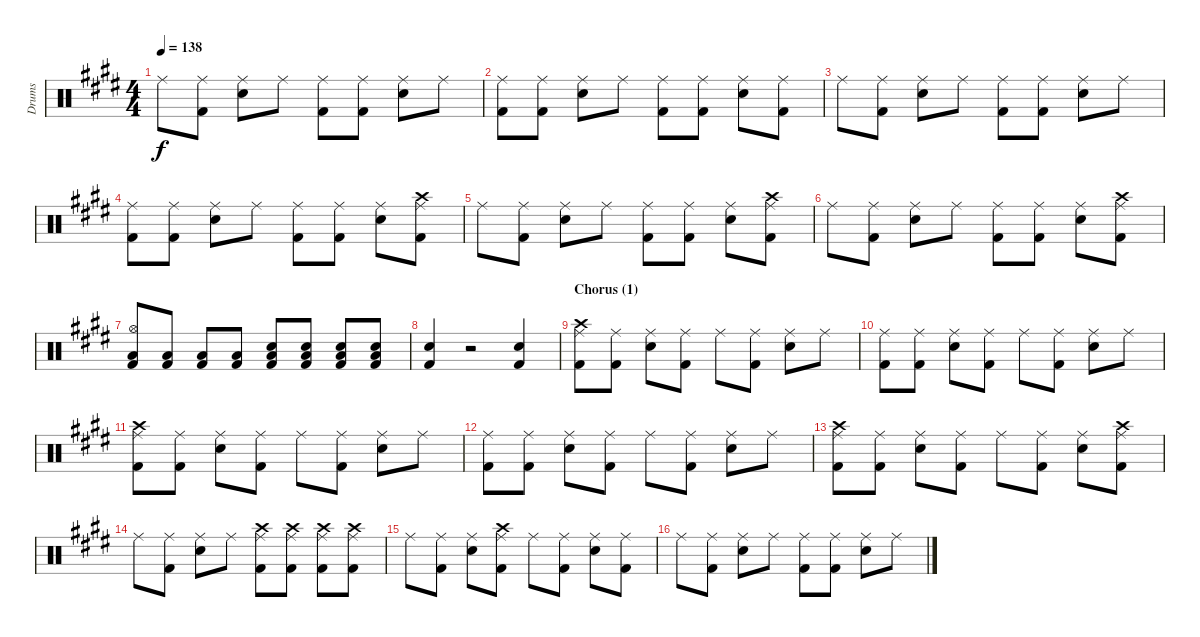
\track ("Drums" "Drums") {instrument percussion}
\staff {score}
\articulation defaults
\ts (4 4)
\tempo 138
\clef neutral
\ks e "Ride (middle)".8{dy f}
("Kick (hit) 2" "Ride (middle)").8 ("Snare (hit) 2" "Ride (middle)").8 "Ride (middle)".8 ("Kick (hit) 2" "Ride (middle)").8 ("Kick (hit) 2" "Ride (middle)").8 ("Snare (hit) 2" "Ride (middle)").8 "Ride (middle)".8 |
("Kick (hit) 2" "Ride (middle)").8 ("Kick (hit) 2" "Ride (middle)").8 ("Snare (hit) 2" "Ride (middle)").8 "Ride (middle)".8 ("Kick (hit) 2" "Ride (middle)").8 ("Kick (hit) 2" "Ride (middle)").8 ("Snare (hit) 2" "Ride (middle)").8 ("Kick (hit) 2" "Ride (middle)").8 |
"Ride (middle)".8 ("Kick (hit) 2" "Ride (middle)").8 ("Snare (hit) 2" "Ride (middle)").8 "Ride (middle)".8 ("Kick (hit) 2" "Ride (middle)").8 ("Kick (hit) 2" "Ride (middle)").8 ("Snare (hit) 2" "Ride (middle)").8 "Ride (middle)".8 |
("Kick (hit) 2" "Ride (middle)").8 ("Kick (hit) 2" "Ride (middle)").8 ("Snare (hit) 2" "Ride (middle)").8 "Ride (middle)".8 ("Kick (hit) 2" "Ride (middle)").8 ("Kick (hit) 2" "Ride (middle)").8 ("Snare (hit) 2" "Ride (middle)").8 ("Crash high (hit)" "Kick (hit) 2" "Ride (middle)").8 |
"Ride (middle)".8 ("Kick (hit) 2" "Ride (middle)").8 ("Snare (hit) 2" "Ride (middle)").8 "Ride (middle)".8 ("Kick (hit) 2" "Ride (middle)").8 ("Kick (hit) 2" "Ride (middle)").8 ("Snare (hit) 2" "Ride (middle)").8 ("Crash high (hit)" "Kick (hit) 2" "Ride (middle)").8 |
"Ride (middle)".8 ("Kick (hit) 2" "Ride (middle)").8 ("Snare (hit) 2" "Ride (middle)").8 "Ride (middle)".8 ("Kick (hit) 2" "Ride (middle)").8 ("Kick (hit) 2" "Ride (middle)").8 ("Snare (hit) 2" "Ride (middle)").8 ("Crash high (hit)" "Kick (hit) 2" "Ride (middle)").8 |
("Hi-Hat (open)" "Low Floor Tom (hit)" "Kick (hit) 2").8 ("Low Floor Tom (hit)" "Kick (hit) 2").8 ("Low Floor Tom (hit)" "Kick (hit) 2").8 ("Low Floor Tom (hit)" "Kick (hit) 2").8 ("Low Floor Tom (hit)" "Kick (hit) 2" "Snare (hit) 2").8 ("Low Floor Tom (hit)" "Kick (hit) 2" "Snare (hit) 2").8 ("Low Floor Tom (hit)" "Kick (hit) 2" "Snare (hit) 2").8 ("Low Floor Tom (hit)" "Kick (hit) 2" "Snare (hit) 2").8 |
("Snare (hit) 2" "Kick (hit) 2").4 r.2 ("Snare (hit) 2" "Kick (hit) 2").4 |
\section ("" "Chorus (1)")
("Crash high (hit)" "Kick (hit) 2" "Ride (middle)").8 ("Kick (hit) 2" "Ride (middle)").8 ("Snare (hit) 2" "Ride (middle)").8 ("Kick (hit) 2" "Ride (middle)").8 "Ride (middle)".8 ("Kick (hit) 2" "Ride (middle)").8 ("Snare (hit) 2" "Ride (middle)").8 "Ride (middle)".8 |
("Kick (hit) 2" "Ride (middle)").8 ("Kick (hit) 2" "Ride (middle)").8 ("Snare (hit) 2" "Ride (middle)").8 ("Kick (hit) 2" "Ride (middle)").8 "Ride (middle)".8 ("Kick (hit) 2" "Ride (middle)").8 ("Snare (hit) 2" "Ride (middle)").8 "Ride (middle)".8 |
("Crash high (hit)" "Kick (hit) 2" "Ride (middle)").8 ("Kick (hit) 2" "Ride (middle)").8 ("Snare (hit) 2" "Ride (middle)").8 ("Kick (hit) 2" "Ride (middle)").8 "Ride (middle)".8 ("Kick (hit) 2" "Ride (middle)").8 ("Snare (hit) 2" "Ride (middle)").8 "Ride (middle)".8 |
("Kick (hit) 2" "Ride (middle)").8 ("Kick (hit) 2" "Ride (middle)").8 ("Snare (hit) 2" "Ride (middle)").8 ("Kick (hit) 2" "Ride (middle)").8 "Ride (middle)".8 ("Kick (hit) 2" "Ride (middle)").8 ("Snare (hit) 2" "Ride (middle)").8 "Ride (middle)".8 |
("Crash high (hit)" "Kick (hit) 2" "Ride (middle)").8 ("Kick (hit) 2" "Ride (middle)").8 ("Snare (hit) 2" "Ride (middle)").8 ("Kick (hit) 2" "Ride (middle)").8 "Ride (middle)".8 ("Kick (hit) 2" "Ride (middle)").8 ("Snare (hit) 2" "Ride (middle)").8 ("Crash high (hit)" "Kick (hit) 2" "Ride (middle)").8 |
"Ride (middle)".8 ("Kick (hit) 2" "Ride (middle)").8 ("Snare (hit) 2" "Ride (middle)").8 "Ride (middle)".8 ("Crash high (hit)" "Kick (hit) 2" "Ride (middle)").8 ("Crash high (hit)" "Kick (hit) 2" "Ride (middle)").8 ("Crash high (hit)" "Kick (hit) 2" "Ride (middle)").8 ("Crash high (hit)" "Kick (hit) 2" "Ride (middle)").8 |
"Ride (middle)".8 ("Kick (hit) 2" "Ride (middle)").8 ("Snare (hit) 2" "Ride (middle)").8 ("Crash high (hit)" "Kick (hit) 2" "Ride (middle)").8 "Ride (middle)".8 ("Kick (hit) 2" "Ride (middle)").8 ("Snare (hit) 2" "Ride (middle)").8 ("Kick (hit) 2" "Ride (middle)").8 |
"Ride (middle)".8 ("Kick (hit) 2" "Ride (middle)").8 ("Snare (hit) 2" "Ride (middle)").8 "Ride (middle)".8 ("Kick (hit) 2" "Ride (middle)").8 ("Kick (hit) 2" "Ride (middle)").8 ("Snare (hit) 2" "Ride (middle)").8 "Ride (middle)".8
